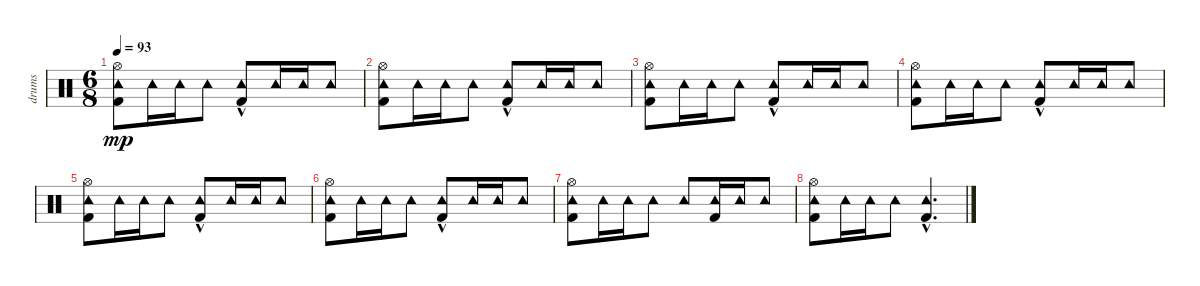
\track ("drums" "drums") {instrument percussion}
\staff {score}
\articulation defaults
\ts (6 8)
\tempo 93
\clef neutral
\ks c
("Tambourine (hit)" "Kick (hit) 2" "Hi-Hat (open)").8{dy mp} "Tambourine (hit)".16 "Tambourine (hit)".16 "Tambourine (hit)".8 ("Tambourine (hit)" "Kick (hit) 2"{hac}).8 "Tambourine (hit)".16 "Tambourine (hit)".16 "Tambourine (hit)".8 |
("Tambourine (hit)" "Kick (hit) 2" "Hi-Hat (open)").8 "Tambourine (hit)".16 "Tambourine (hit)".16 "Tambourine (hit)".8 ("Tambourine (hit)" "Kick (hit) 2"{hac}).8 "Tambourine (hit)".16 "Tambourine (hit)".16 "Tambourine (hit)".8 |
("Tambourine (hit)" "Kick (hit) 2" "Hi-Hat (open)").8 "Tambourine (hit)".16 "Tambourine (hit)".16 "Tambourine (hit)".8 ("Tambourine (hit)" "Kick (hit) 2"{hac}).8 "Tambourine (hit)".16 "Tambourine (hit)".16 "Tambourine (hit)".8 |
("Tambourine (hit)" "Kick (hit) 2" "Hi-Hat (open)").8 "Tambourine (hit)".16 "Tambourine (hit)".16 "Tambourine (hit)".8 ("Tambourine (hit)" "Kick (hit) 2"{hac}).8 "Tambourine (hit)".16 "Tambourine (hit)".16 "Tambourine (hit)".8 |
("Tambourine (hit)" "Kick (hit) 2" "Hi-Hat (open)").8 "Tambourine (hit)".16 "Tambourine (hit)".16 "Tambourine (hit)".8 ("Tambourine (hit)" "Kick (hit) 2"{hac}).8 "Tambourine (hit)".16 "Tambourine (hit)".16 "Tambourine (hit)".8 |
("Tambourine (hit)" "Kick (hit) 2" "Hi-Hat (open)").8 "Tambourine (hit)".16 "Tambourine (hit)".16 "Tambourine (hit)".8 ("Tambourine (hit)" "Kick (hit) 2"{hac}).8 "Tambourine (hit)".16 "Tambourine (hit)".16 "Tambourine (hit)".8 |
("Tambourine (hit)" "Kick (hit) 2" "Hi-Hat (open)").8 "Tambourine (hit)".16 "Tambourine (hit)".16 "Tambourine (hit)".8 "Tambourine (hit)".8 ("Tambourine (hit)" "Kick (hit) 2").16 "Tambourine (hit)".16 "Tambourine (hit)".8 |
("Tambourine (hit)" "Kick (hit) 2" "Hi-Hat (open)").8 "Tambourine (hit)".16 "Tambourine (hit)".16 "Tambourine (hit)".8 ("Tambourine (hit)" "Kick (hit) 2"{hac}).4{d}
